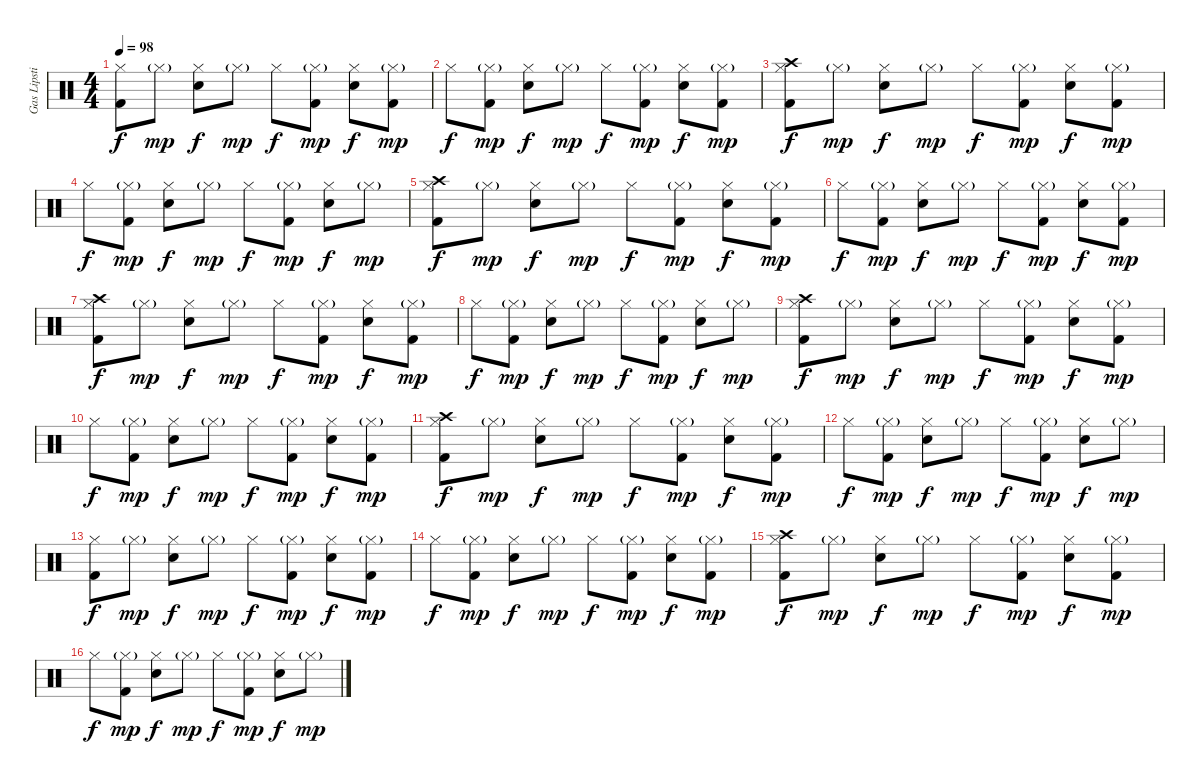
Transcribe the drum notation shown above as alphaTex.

\track ("Gas Lipstick (Drums)" "Gas Lipsti") {instrument percussion}
\staff {score}
\articulation defaults
\ts (4 4)
\tempo 98
\clef neutral
\ks c
("Hi-Hat (closed)" "Kick (hit) 2").8{dy f} "Hi-Hat (closed)"{g}.8{dy mp} ("Hi-Hat (closed)" "Snare (hit) 2").8{dy f} "Hi-Hat (closed)"{g}.8{dy mp} "Hi-Hat (closed)".8{dy f} ("Hi-Hat (closed)"{g} "Kick (hit) 2").8{dy mp} ("Hi-Hat (closed)" "Snare (hit) 2").8{dy f} ("Hi-Hat (closed)"{g} "Kick (hit) 2").8{dy mp} |
"Hi-Hat (closed)".8{dy f} ("Hi-Hat (closed)"{g} "Kick (hit) 2").8{dy mp} ("Hi-Hat (closed)" "Snare (hit) 2").8{dy f} "Hi-Hat (closed)"{g}.8{dy mp} "Hi-Hat (closed)".8{dy f} ("Hi-Hat (closed)"{g} "Kick (hit) 2").8{dy mp} ("Hi-Hat (closed)" "Snare (hit) 2").8{dy f} ("Hi-Hat (closed)"{g} "Kick (hit) 2").8{dy mp} |
("Crash high (hit)" "Hi-Hat (closed)" "Kick (hit) 2").8{dy f} "Hi-Hat (closed)"{g}.8{dy mp} ("Hi-Hat (closed)" "Snare (hit) 2").8{dy f} "Hi-Hat (closed)"{g}.8{dy mp} "Hi-Hat (closed)".8{dy f} ("Hi-Hat (closed)"{g} "Kick (hit) 2").8{dy mp} ("Hi-Hat (closed)" "Snare (hit) 2").8{dy f} ("Hi-Hat (closed)"{g} "Kick (hit) 2").8{dy mp} |
"Hi-Hat (closed)".8{dy f} ("Hi-Hat (closed)"{g} "Kick (hit) 2").8{dy mp} ("Hi-Hat (closed)" "Snare (hit) 2").8{dy f} "Hi-Hat (closed)"{g}.8{dy mp} "Hi-Hat (closed)".8{dy f} ("Hi-Hat (closed)"{g} "Kick (hit) 2").8{dy mp} ("Hi-Hat (closed)" "Snare (hit) 2").8{dy f} "Hi-Hat (closed)"{g}.8{dy mp} |
("Crash high (hit)" "Hi-Hat (closed)" "Kick (hit) 2").8{dy f} "Hi-Hat (closed)"{g}.8{dy mp} ("Hi-Hat (closed)" "Snare (hit) 2").8{dy f} "Hi-Hat (closed)"{g}.8{dy mp} "Hi-Hat (closed)".8{dy f} ("Hi-Hat (closed)"{g} "Kick (hit) 2").8{dy mp} ("Hi-Hat (closed)" "Snare (hit) 2").8{dy f} ("Hi-Hat (closed)"{g} "Kick (hit) 2").8{dy mp} |
"Hi-Hat (closed)".8{dy f} ("Hi-Hat (closed)"{g} "Kick (hit) 2").8{dy mp} ("Hi-Hat (closed)" "Snare (hit) 2").8{dy f} "Hi-Hat (closed)"{g}.8{dy mp} "Hi-Hat (closed)".8{dy f} ("Hi-Hat (closed)"{g} "Kick (hit) 2").8{dy mp} ("Hi-Hat (closed)" "Snare (hit) 2").8{dy f} ("Hi-Hat (closed)"{g} "Kick (hit) 2").8{dy mp} |
("Crash high (hit)" "Hi-Hat (closed)" "Kick (hit) 2").8{dy f} "Hi-Hat (closed)"{g}.8{dy mp} ("Hi-Hat (closed)" "Snare (hit) 2").8{dy f} "Hi-Hat (closed)"{g}.8{dy mp} "Hi-Hat (closed)".8{dy f} ("Hi-Hat (closed)"{g} "Kick (hit) 2").8{dy mp} ("Hi-Hat (closed)" "Snare (hit) 2").8{dy f} ("Hi-Hat (closed)"{g} "Kick (hit) 2").8{dy mp} |
"Hi-Hat (closed)".8{dy f} ("Hi-Hat (closed)"{g} "Kick (hit) 2").8{dy mp} ("Hi-Hat (closed)" "Snare (hit) 2").8{dy f} "Hi-Hat (closed)"{g}.8{dy mp} "Hi-Hat (closed)".8{dy f} ("Hi-Hat (closed)"{g} "Kick (hit) 2").8{dy mp} ("Hi-Hat (closed)" "Snare (hit) 2").8{dy f} "Hi-Hat (closed)"{g}.8{dy mp} |
("Crash high (hit)" "Hi-Hat (closed)" "Kick (hit) 2").8{dy f} "Hi-Hat (closed)"{g}.8{dy mp} ("Hi-Hat (closed)" "Snare (hit) 2").8{dy f} "Hi-Hat (closed)"{g}.8{dy mp} "Hi-Hat (closed)".8{dy f} ("Hi-Hat (closed)"{g} "Kick (hit) 2").8{dy mp} ("Hi-Hat (closed)" "Snare (hit) 2").8{dy f} ("Hi-Hat (closed)"{g} "Kick (hit) 2").8{dy mp} |
"Hi-Hat (closed)".8{dy f} ("Hi-Hat (closed)"{g} "Kick (hit) 2").8{dy mp} ("Hi-Hat (closed)" "Snare (hit) 2").8{dy f} "Hi-Hat (closed)"{g}.8{dy mp} "Hi-Hat (closed)".8{dy f} ("Hi-Hat (closed)"{g} "Kick (hit) 2").8{dy mp} ("Hi-Hat (closed)" "Snare (hit) 2").8{dy f} ("Hi-Hat (closed)"{g} "Kick (hit) 2").8{dy mp} |
("Crash high (hit)" "Hi-Hat (closed)" "Kick (hit) 2").8{dy f} "Hi-Hat (closed)"{g}.8{dy mp} ("Hi-Hat (closed)" "Snare (hit) 2").8{dy f} "Hi-Hat (closed)"{g}.8{dy mp} "Hi-Hat (closed)".8{dy f} ("Hi-Hat (closed)"{g} "Kick (hit) 2").8{dy mp} ("Hi-Hat (closed)" "Snare (hit) 2").8{dy f} ("Hi-Hat (closed)"{g} "Kick (hit) 2").8{dy mp} |
"Hi-Hat (closed)".8{dy f} ("Hi-Hat (closed)"{g} "Kick (hit) 2").8{dy mp} ("Hi-Hat (closed)" "Snare (hit) 2").8{dy f} "Hi-Hat (closed)"{g}.8{dy mp} "Hi-Hat (closed)".8{dy f} ("Hi-Hat (closed)"{g} "Kick (hit) 2").8{dy mp} ("Hi-Hat (closed)" "Snare (hit) 2").8{dy f} "Hi-Hat (closed)"{g}.8{dy mp} |
("Hi-Hat (closed)" "Kick (hit) 2").8{dy f} "Hi-Hat (closed)"{g}.8{dy mp} ("Hi-Hat (closed)" "Snare (hit) 2").8{dy f} "Hi-Hat (closed)"{g}.8{dy mp} "Hi-Hat (closed)".8{dy f} ("Hi-Hat (closed)"{g} "Kick (hit) 2").8{dy mp} ("Hi-Hat (closed)" "Snare (hit) 2").8{dy f} ("Hi-Hat (closed)"{g} "Kick (hit) 2").8{dy mp} |
"Hi-Hat (closed)".8{dy f} ("Hi-Hat (closed)"{g} "Kick (hit) 2").8{dy mp} ("Hi-Hat (closed)" "Snare (hit) 2").8{dy f} "Hi-Hat (closed)"{g}.8{dy mp} "Hi-Hat (closed)".8{dy f} ("Hi-Hat (closed)"{g} "Kick (hit) 2").8{dy mp} ("Hi-Hat (closed)" "Snare (hit) 2").8{dy f} ("Hi-Hat (closed)"{g} "Kick (hit) 2").8{dy mp} |
("Crash high (hit)" "Hi-Hat (closed)" "Kick (hit) 2").8{dy f} "Hi-Hat (closed)"{g}.8{dy mp} ("Hi-Hat (closed)" "Snare (hit) 2").8{dy f} "Hi-Hat (closed)"{g}.8{dy mp} "Hi-Hat (closed)".8{dy f} ("Hi-Hat (closed)"{g} "Kick (hit) 2").8{dy mp} ("Hi-Hat (closed)" "Snare (hit) 2").8{dy f} ("Hi-Hat (closed)"{g} "Kick (hit) 2").8{dy mp} |
"Hi-Hat (closed)".8{dy f} ("Hi-Hat (closed)"{g} "Kick (hit) 2").8{dy mp} ("Hi-Hat (closed)" "Snare (hit) 2").8{dy f} "Hi-Hat (closed)"{g}.8{dy mp} "Hi-Hat (closed)".8{dy f} ("Hi-Hat (closed)"{g} "Kick (hit) 2").8{dy mp} ("Hi-Hat (closed)" "Snare (hit) 2").8{dy f} "Hi-Hat (closed)"{g}.8{dy mp}
